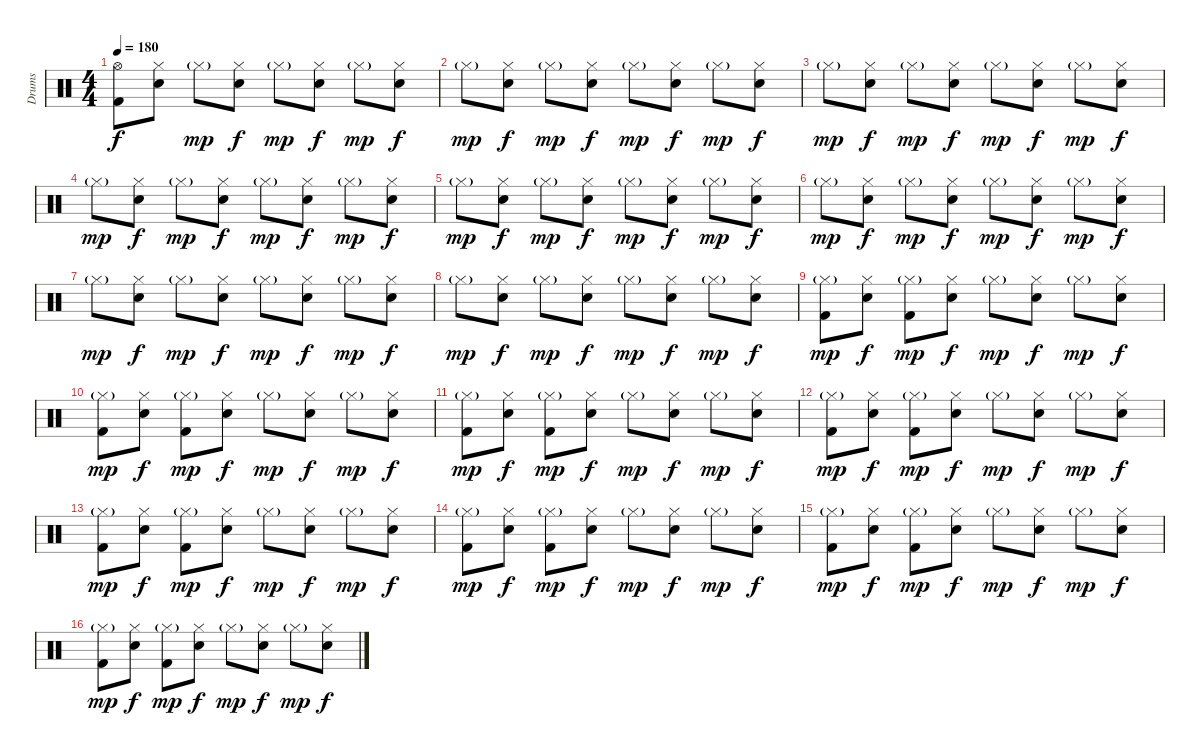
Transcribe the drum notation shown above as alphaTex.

\track ("Drums" "Drums") {instrument percussion}
\staff {score}
\articulation defaults
\ts (4 4)
\tempo 180
\clef neutral
\ks c
("Hi-Hat (open)" "Kick (hit) 2").8{dy f} ("Hi-Hat (closed)" "Electric Snare (hit)").8 "Hi-Hat (closed)"{g}.8{dy mp} ("Hi-Hat (closed)" "Electric Snare (hit)").8{dy f} "Hi-Hat (closed)"{g}.8{dy mp} ("Hi-Hat (closed)" "Electric Snare (hit)").8{dy f} "Hi-Hat (closed)"{g}.8{dy mp} ("Hi-Hat (closed)" "Electric Snare (hit)").8{dy f} |
"Hi-Hat (closed)"{g}.8{dy mp} ("Hi-Hat (closed)" "Electric Snare (hit)").8{dy f} "Hi-Hat (closed)"{g}.8{dy mp} ("Hi-Hat (closed)" "Electric Snare (hit)").8{dy f} "Hi-Hat (closed)"{g}.8{dy mp} ("Hi-Hat (closed)" "Electric Snare (hit)").8{dy f} "Hi-Hat (closed)"{g}.8{dy mp} ("Hi-Hat (closed)" "Electric Snare (hit)").8{dy f} |
"Hi-Hat (closed)"{g}.8{dy mp} ("Hi-Hat (closed)" "Electric Snare (hit)").8{dy f} "Hi-Hat (closed)"{g}.8{dy mp} ("Hi-Hat (closed)" "Electric Snare (hit)").8{dy f} "Hi-Hat (closed)"{g}.8{dy mp} ("Hi-Hat (closed)" "Electric Snare (hit)").8{dy f} "Hi-Hat (closed)"{g}.8{dy mp} ("Hi-Hat (closed)" "Electric Snare (hit)").8{dy f} |
"Hi-Hat (closed)"{g}.8{dy mp} ("Hi-Hat (closed)" "Electric Snare (hit)").8{dy f} "Hi-Hat (closed)"{g}.8{dy mp} ("Hi-Hat (closed)" "Electric Snare (hit)").8{dy f} "Hi-Hat (closed)"{g}.8{dy mp} ("Hi-Hat (closed)" "Electric Snare (hit)").8{dy f} "Hi-Hat (closed)"{g}.8{dy mp} ("Hi-Hat (closed)" "Electric Snare (hit)").8{dy f} |
"Hi-Hat (closed)"{g}.8{dy mp} ("Hi-Hat (closed)" "Electric Snare (hit)").8{dy f} "Hi-Hat (closed)"{g}.8{dy mp} ("Hi-Hat (closed)" "Electric Snare (hit)").8{dy f} "Hi-Hat (closed)"{g}.8{dy mp} ("Hi-Hat (closed)" "Electric Snare (hit)").8{dy f} "Hi-Hat (closed)"{g}.8{dy mp} ("Hi-Hat (closed)" "Electric Snare (hit)").8{dy f} |
"Hi-Hat (closed)"{g}.8{dy mp} ("Hi-Hat (closed)" "Electric Snare (hit)").8{dy f} "Hi-Hat (closed)"{g}.8{dy mp} ("Hi-Hat (closed)" "Electric Snare (hit)").8{dy f} "Hi-Hat (closed)"{g}.8{dy mp} ("Hi-Hat (closed)" "Electric Snare (hit)").8{dy f} "Hi-Hat (closed)"{g}.8{dy mp} ("Hi-Hat (closed)" "Electric Snare (hit)").8{dy f} |
"Hi-Hat (closed)"{g}.8{dy mp} ("Hi-Hat (closed)" "Electric Snare (hit)").8{dy f} "Hi-Hat (closed)"{g}.8{dy mp} ("Hi-Hat (closed)" "Electric Snare (hit)").8{dy f} "Hi-Hat (closed)"{g}.8{dy mp} ("Hi-Hat (closed)" "Electric Snare (hit)").8{dy f} "Hi-Hat (closed)"{g}.8{dy mp} ("Hi-Hat (closed)" "Electric Snare (hit)").8{dy f} |
"Hi-Hat (closed)"{g}.8{dy mp} ("Hi-Hat (closed)" "Electric Snare (hit)").8{dy f} "Hi-Hat (closed)"{g}.8{dy mp} ("Hi-Hat (closed)" "Electric Snare (hit)").8{dy f} "Hi-Hat (closed)"{g}.8{dy mp} ("Hi-Hat (closed)" "Electric Snare (hit)").8{dy f} "Hi-Hat (closed)"{g}.8{dy mp} ("Hi-Hat (closed)" "Electric Snare (hit)").8{dy f} |
("Hi-Hat (closed)"{g} "Kick (hit) 2").8{dy mp} ("Hi-Hat (closed)" "Electric Snare (hit)").8{dy f} ("Hi-Hat (closed)"{g} "Kick (hit) 2").8{dy mp} ("Hi-Hat (closed)" "Electric Snare (hit)").8{dy f} "Hi-Hat (closed)"{g}.8{dy mp} ("Hi-Hat (closed)" "Electric Snare (hit)").8{dy f} "Hi-Hat (closed)"{g}.8{dy mp} ("Hi-Hat (closed)" "Electric Snare (hit)").8{dy f} |
("Hi-Hat (closed)"{g} "Kick (hit) 2").8{dy mp} ("Hi-Hat (closed)" "Electric Snare (hit)").8{dy f} ("Hi-Hat (closed)"{g} "Kick (hit) 2").8{dy mp} ("Hi-Hat (closed)" "Electric Snare (hit)").8{dy f} "Hi-Hat (closed)"{g}.8{dy mp} ("Hi-Hat (closed)" "Electric Snare (hit)").8{dy f} "Hi-Hat (closed)"{g}.8{dy mp} ("Hi-Hat (closed)" "Electric Snare (hit)").8{dy f} |
("Hi-Hat (closed)"{g} "Kick (hit) 2").8{dy mp} ("Hi-Hat (closed)" "Electric Snare (hit)").8{dy f} ("Hi-Hat (closed)"{g} "Kick (hit) 2").8{dy mp} ("Hi-Hat (closed)" "Electric Snare (hit)").8{dy f} "Hi-Hat (closed)"{g}.8{dy mp} ("Hi-Hat (closed)" "Electric Snare (hit)").8{dy f} "Hi-Hat (closed)"{g}.8{dy mp} ("Hi-Hat (closed)" "Electric Snare (hit)").8{dy f} |
("Hi-Hat (closed)"{g} "Kick (hit) 2").8{dy mp} ("Hi-Hat (closed)" "Electric Snare (hit)").8{dy f} ("Hi-Hat (closed)"{g} "Kick (hit) 2").8{dy mp} ("Hi-Hat (closed)" "Electric Snare (hit)").8{dy f} "Hi-Hat (closed)"{g}.8{dy mp} ("Hi-Hat (closed)" "Electric Snare (hit)").8{dy f} "Hi-Hat (closed)"{g}.8{dy mp} ("Hi-Hat (closed)" "Electric Snare (hit)").8{dy f} |
("Hi-Hat (closed)"{g} "Kick (hit) 2").8{dy mp} ("Hi-Hat (closed)" "Electric Snare (hit)").8{dy f} ("Hi-Hat (closed)"{g} "Kick (hit) 2").8{dy mp} ("Hi-Hat (closed)" "Electric Snare (hit)").8{dy f} "Hi-Hat (closed)"{g}.8{dy mp} ("Hi-Hat (closed)" "Electric Snare (hit)").8{dy f} "Hi-Hat (closed)"{g}.8{dy mp} ("Hi-Hat (closed)" "Electric Snare (hit)").8{dy f} |
("Hi-Hat (closed)"{g} "Kick (hit) 2").8{dy mp} ("Hi-Hat (closed)" "Electric Snare (hit)").8{dy f} ("Hi-Hat (closed)"{g} "Kick (hit) 2").8{dy mp} ("Hi-Hat (closed)" "Electric Snare (hit)").8{dy f} "Hi-Hat (closed)"{g}.8{dy mp} ("Hi-Hat (closed)" "Electric Snare (hit)").8{dy f} "Hi-Hat (closed)"{g}.8{dy mp} ("Hi-Hat (closed)" "Electric Snare (hit)").8{dy f} |
("Hi-Hat (closed)"{g} "Kick (hit) 2").8{dy mp} ("Hi-Hat (closed)" "Electric Snare (hit)").8{dy f} ("Hi-Hat (closed)"{g} "Kick (hit) 2").8{dy mp} ("Hi-Hat (closed)" "Electric Snare (hit)").8{dy f} "Hi-Hat (closed)"{g}.8{dy mp} ("Hi-Hat (closed)" "Electric Snare (hit)").8{dy f} "Hi-Hat (closed)"{g}.8{dy mp} ("Hi-Hat (closed)" "Electric Snare (hit)").8{dy f} |
("Hi-Hat (closed)"{g} "Kick (hit) 2").8{dy mp} ("Hi-Hat (closed)" "Electric Snare (hit)").8{dy f} ("Hi-Hat (closed)"{g} "Kick (hit) 2").8{dy mp} ("Hi-Hat (closed)" "Electric Snare (hit)").8{dy f} "Hi-Hat (closed)"{g}.8{dy mp} ("Hi-Hat (closed)" "Electric Snare (hit)").8{dy f} "Hi-Hat (closed)"{g}.8{dy mp} ("Hi-Hat (closed)" "Electric Snare (hit)").8{dy f}
